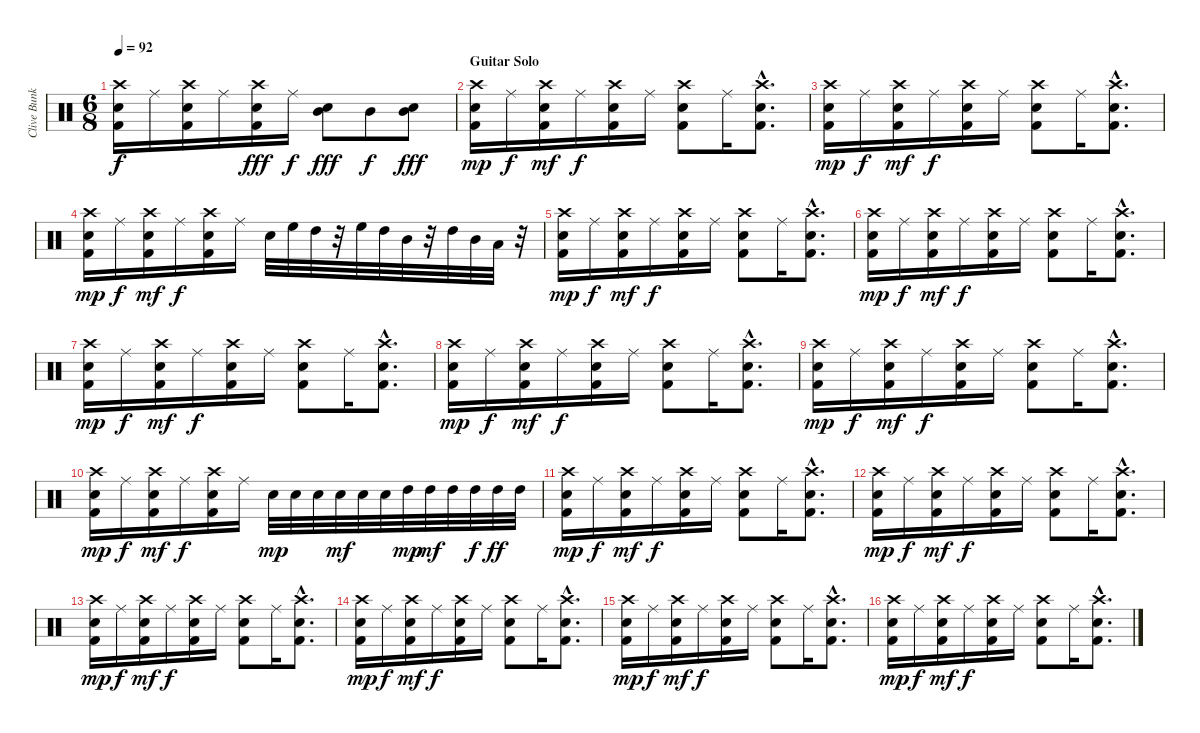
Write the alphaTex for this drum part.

\track ("Clive Bunker (Drums)" "Clive Bunk") {instrument percussion}
\staff {score}
\articulation defaults
\ts (6 8)
\tempo 92
\clef neutral
\ks c
("Crash high (hit)" "Electric Snare (hit)" "Kick (hit) 2").16{dy f} "Ride (middle)".16 ("Crash high (hit)" "Electric Snare (hit)" "Kick (hit) 2").16 "Ride (middle)".16 ("Crash high (hit)" "Electric Snare (hit)" "Kick (hit) 2").16{dy fff} "Ride (middle)".16{dy f} ("Electric Snare (hit)" "Mid Tom (hit)").8{dy fff volume 16} "Mid Tom (hit)".8{dy f} ("Electric Snare (hit)" "Mid Tom (hit)").8{dy fff} |
\section ("" "Guitar Solo")
("Crash high (hit)" "Electric Snare (hit)" "Kick (hit) 2").16{dy mp} "Ride (middle)".16{dy f} ("Crash high (hit)" "Electric Snare (hit)" "Kick (hit) 2").16{dy mf} "Ride (middle)".16{dy f} ("Crash high (hit)" "Electric Snare (hit)" "Kick (hit) 2").16 "Ride (middle)".16 ("Crash high (hit)" "Electric Snare (hit)" "Kick (hit) 2").8 "Ride (middle)".16 ("Crash high (hit)"{hac} "Electric Snare (hit)"{hac} "Kick (hit) 2"{hac}).8{d} |
("Crash high (hit)" "Electric Snare (hit)" "Kick (hit) 2").16{dy mp} "Ride (middle)".16{dy f} ("Crash high (hit)" "Electric Snare (hit)" "Kick (hit) 2").16{dy mf} "Ride (middle)".16{dy f} ("Crash high (hit)" "Electric Snare (hit)" "Kick (hit) 2").16 "Ride (middle)".16 ("Crash high (hit)" "Electric Snare (hit)" "Kick (hit) 2").8 "Ride (middle)".16 ("Crash high (hit)"{hac} "Electric Snare (hit)"{hac} "Kick (hit) 2"{hac}).8{d} |
("Crash high (hit)" "Electric Snare (hit)" "Kick (hit) 2").16{dy mp} "Ride (middle)".16{dy f} ("Crash high (hit)" "Electric Snare (hit)" "Kick (hit) 2").16{dy mf} "Ride (middle)".16{dy f} ("Crash high (hit)" "Electric Snare (hit)" "Kick (hit) 2").16 "Ride (middle)".16 "Electric Snare (hit)".32 "High Floor Tom (hit)".32 "High Tom (hit)".32 r.32 "High Floor Tom (hit)".32 "High Tom (hit)".32 "Mid Tom (hit)".32 r.32 "High Tom (hit)".32 "Mid Tom (hit)".32 "Low Tom (hit)".32 r.32 |
("Crash high (hit)" "Electric Snare (hit)" "Kick (hit) 2").16{dy mp} "Ride (middle)".16{dy f} ("Crash high (hit)" "Electric Snare (hit)" "Kick (hit) 2").16{dy mf} "Ride (middle)".16{dy f} ("Crash high (hit)" "Electric Snare (hit)" "Kick (hit) 2").16 "Ride (middle)".16 ("Crash high (hit)" "Electric Snare (hit)" "Kick (hit) 2").8 "Ride (middle)".16 ("Crash high (hit)"{hac} "Electric Snare (hit)"{hac} "Kick (hit) 2"{hac}).8{d} |
("Crash high (hit)" "Electric Snare (hit)" "Kick (hit) 2").16{dy mp} "Ride (middle)".16{dy f} ("Crash high (hit)" "Electric Snare (hit)" "Kick (hit) 2").16{dy mf} "Ride (middle)".16{dy f} ("Crash high (hit)" "Electric Snare (hit)" "Kick (hit) 2").16 "Ride (middle)".16 ("Crash high (hit)" "Electric Snare (hit)" "Kick (hit) 2").8 "Ride (middle)".16 ("Crash high (hit)"{hac} "Electric Snare (hit)"{hac} "Kick (hit) 2"{hac}).8{d} |
("Crash high (hit)" "Electric Snare (hit)" "Kick (hit) 2").16{dy mp} "Ride (middle)".16{dy f} ("Crash high (hit)" "Electric Snare (hit)" "Kick (hit) 2").16{dy mf} "Ride (middle)".16{dy f} ("Crash high (hit)" "Electric Snare (hit)" "Kick (hit) 2").16 "Ride (middle)".16 ("Crash high (hit)" "Electric Snare (hit)" "Kick (hit) 2").8 "Ride (middle)".16 ("Crash high (hit)"{hac} "Electric Snare (hit)"{hac} "Kick (hit) 2"{hac}).8{d} |
("Crash high (hit)" "Electric Snare (hit)" "Kick (hit) 2").16{dy mp} "Ride (middle)".16{dy f} ("Crash high (hit)" "Electric Snare (hit)" "Kick (hit) 2").16{dy mf} "Ride (middle)".16{dy f} ("Crash high (hit)" "Electric Snare (hit)" "Kick (hit) 2").16 "Ride (middle)".16 ("Crash high (hit)" "Electric Snare (hit)" "Kick (hit) 2").8 "Ride (middle)".16 ("Crash high (hit)"{hac} "Electric Snare (hit)"{hac} "Kick (hit) 2"{hac}).8{d} |
("Crash high (hit)" "Electric Snare (hit)" "Kick (hit) 2").16{dy mp} "Ride (middle)".16{dy f} ("Crash high (hit)" "Electric Snare (hit)" "Kick (hit) 2").16{dy mf} "Ride (middle)".16{dy f} ("Crash high (hit)" "Electric Snare (hit)" "Kick (hit) 2").16 "Ride (middle)".16 ("Crash high (hit)" "Electric Snare (hit)" "Kick (hit) 2").8 "Ride (middle)".16 ("Crash high (hit)"{hac} "Electric Snare (hit)"{hac} "Kick (hit) 2"{hac}).8{d} |
("Crash high (hit)" "Electric Snare (hit)" "Kick (hit) 2").16{dy mp} "Ride (middle)".16{dy f} ("Crash high (hit)" "Electric Snare (hit)" "Kick (hit) 2").16{dy mf} "Ride (middle)".16{dy f} ("Crash high (hit)" "Electric Snare (hit)" "Kick (hit) 2").16 "Ride (middle)".16 "Electric Snare (hit)".32{dy mp} "Electric Snare (hit)".32 "Electric Snare (hit)".32 "Electric Snare (hit)".32{dy mf} "Electric Snare (hit)".32 "Electric Snare (hit)".32 "High Tom (hit)".32{dy mp} "High Tom (hit)".32{dy mf} "High Tom (hit)".32 "High Tom (hit)".32{dy f} "High Tom (hit)".32{dy ff} "High Tom (hit)".32 |
("Crash high (hit)" "Electric Snare (hit)" "Kick (hit) 2").16{dy mp} "Ride (middle)".16{dy f} ("Crash high (hit)" "Electric Snare (hit)" "Kick (hit) 2").16{dy mf} "Ride (middle)".16{dy f} ("Crash high (hit)" "Electric Snare (hit)" "Kick (hit) 2").16 "Ride (middle)".16 ("Crash high (hit)" "Electric Snare (hit)" "Kick (hit) 2").8 "Ride (middle)".16 ("Crash high (hit)"{hac} "Electric Snare (hit)"{hac} "Kick (hit) 2"{hac}).8{d} |
("Crash high (hit)" "Electric Snare (hit)" "Kick (hit) 2").16{dy mp} "Ride (middle)".16{dy f} ("Crash high (hit)" "Electric Snare (hit)" "Kick (hit) 2").16{dy mf} "Ride (middle)".16{dy f} ("Crash high (hit)" "Electric Snare (hit)" "Kick (hit) 2").16 "Ride (middle)".16 ("Crash high (hit)" "Electric Snare (hit)" "Kick (hit) 2").8 "Ride (middle)".16 ("Crash high (hit)"{hac} "Electric Snare (hit)"{hac} "Kick (hit) 2"{hac}).8{d} |
("Crash high (hit)" "Electric Snare (hit)" "Kick (hit) 2").16{dy mp} "Ride (middle)".16{dy f} ("Crash high (hit)" "Electric Snare (hit)" "Kick (hit) 2").16{dy mf} "Ride (middle)".16{dy f} ("Crash high (hit)" "Electric Snare (hit)" "Kick (hit) 2").16 "Ride (middle)".16 ("Crash high (hit)" "Electric Snare (hit)" "Kick (hit) 2").8 "Ride (middle)".16 ("Crash high (hit)"{hac} "Electric Snare (hit)"{hac} "Kick (hit) 2"{hac}).8{d} |
("Crash high (hit)" "Electric Snare (hit)" "Kick (hit) 2").16{dy mp} "Ride (middle)".16{dy f} ("Crash high (hit)" "Electric Snare (hit)" "Kick (hit) 2").16{dy mf} "Ride (middle)".16{dy f} ("Crash high (hit)" "Electric Snare (hit)" "Kick (hit) 2").16 "Ride (middle)".16 ("Crash high (hit)" "Electric Snare (hit)" "Kick (hit) 2").8 "Ride (middle)".16 ("Crash high (hit)"{hac} "Electric Snare (hit)"{hac} "Kick (hit) 2"{hac}).8{d} |
("Crash high (hit)" "Electric Snare (hit)" "Kick (hit) 2").16{dy mp} "Ride (middle)".16{dy f} ("Crash high (hit)" "Electric Snare (hit)" "Kick (hit) 2").16{dy mf} "Ride (middle)".16{dy f} ("Crash high (hit)" "Electric Snare (hit)" "Kick (hit) 2").16 "Ride (middle)".16 ("Crash high (hit)" "Electric Snare (hit)" "Kick (hit) 2").8 "Ride (middle)".16 ("Crash high (hit)"{hac} "Electric Snare (hit)"{hac} "Kick (hit) 2"{hac}).8{d} |
("Crash high (hit)" "Electric Snare (hit)" "Kick (hit) 2").16{dy mp} "Ride (middle)".16{dy f} ("Crash high (hit)" "Electric Snare (hit)" "Kick (hit) 2").16{dy mf} "Ride (middle)".16{dy f} ("Crash high (hit)" "Electric Snare (hit)" "Kick (hit) 2").16 "Ride (middle)".16 ("Crash high (hit)" "Electric Snare (hit)" "Kick (hit) 2").8 "Ride (middle)".16 ("Crash high (hit)"{hac} "Electric Snare (hit)"{hac} "Kick (hit) 2"{hac}).8{d}
